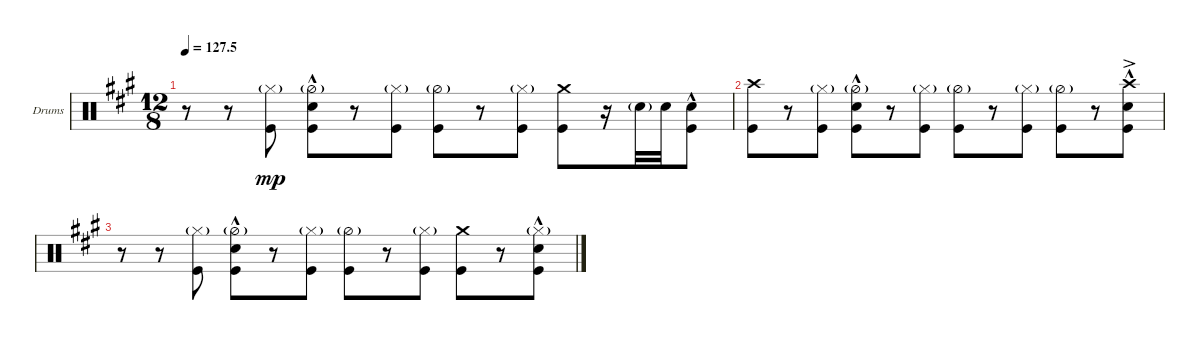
\bracketExtendMode groupsimilarinstruments
\firstSystemTrackNameOrientation horizontal
\otherSystemsTrackNameOrientation horizontal
\track ("Drumkit" "Drums") {instrument percussion}
\staff {score}
\articulation defaults
\ts (12 8)
\tempo
127.5
\accidentals auto
\clef neutral
\ottava regular
\simile none
\ks a
r.8{dy mp} r.8 ("Kick (hit)" "Hi-Hat (closed)"{g}).8 ("Kick (hit)" "Hi-Hat (half)"{g} "Snare (hit) 2"{hac}).8 r.8 ("Kick (hit)" "Hi-Hat (closed)"{g}).8 ("Kick (hit)" "Hi-Hat (half)"{g}).8 r.8 ("Kick (hit)" "Hi-Hat (closed)"{g}).8 ("Kick (hit)" "Crash medium (hit)").8 r.16 "Snare (hit) 2"{g}.32 "Snare (hit) 2".32 ("Kick (hit)" "Snare (hit) 2"{hac}).8 |
("Kick (hit)" "Crash high (hit)").8 r.8 ("Kick (hit)" "Hi-Hat (closed)"{g}).8 ("Kick (hit)" "Hi-Hat (half)"{g} "Snare (hit) 2"{hac}).8 r.8 ("Kick (hit)" "Hi-Hat (closed)"{g}).8 ("Kick (hit)" "Hi-Hat (half)"{g}).8 r.8 ("Kick (hit)" "Hi-Hat (closed)"{g}).8 ("Kick (hit)" "Hi-Hat (half)"{g}).8 r.8 ("Kick (hit)" "Snare (hit) 2"{hac} "Crash high (hit)"{ac}).8 |
r.8 r.8 ("Kick (hit)" "Hi-Hat (closed)"{g}).8 ("Kick (hit)" "Hi-Hat (half)"{g} "Snare (hit) 2"{hac}).8 r.8 ("Kick (hit)" "Hi-Hat (closed)"{g}).8 ("Kick (hit)" "Hi-Hat (half)"{g}).8 r.8 ("Kick (hit)" "Hi-Hat (closed)"{g}).8 ("Kick (hit)" "Crash medium (hit)").8 r.8 ("Kick (hit)" "Hi-Hat (closed)"{g} "Snare (hit) 2"{hac}).8
